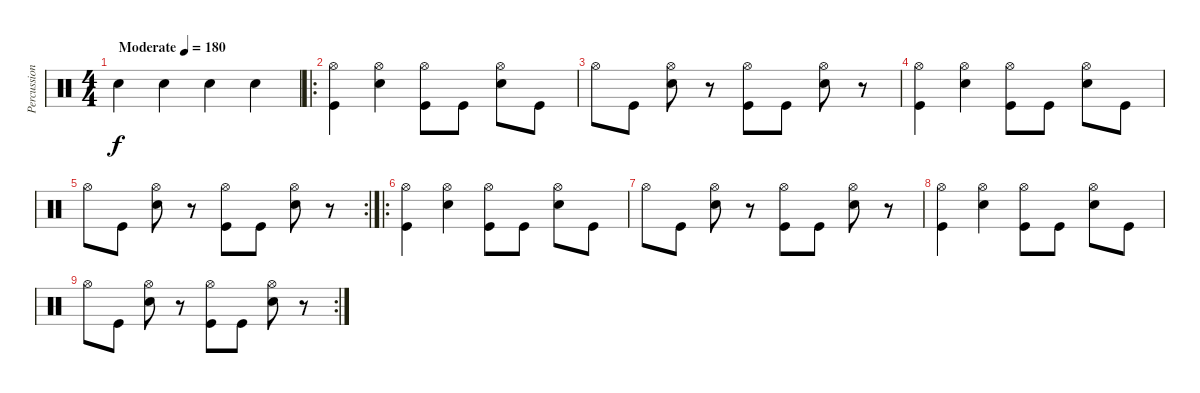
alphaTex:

\track ("Percussion" "Percussion") {instrument percussion}
\staff {score}
\articulation defaults
\ts (4 4)
\tempo (180 "Moderate")
\clef neutral
\ks c "Snare (hit) 2".4{dy f} "Snare (hit) 2".4 "Snare (hit) 2".4 "Snare (hit) 2".4
|
\ro
("Hi-Hat (open)" "Kick (hit)").4 ("Hi-Hat (open)" "Snare (hit) 2").4 ("Hi-Hat (open)" "Kick (hit)").8 "Kick (hit)".8 ("Hi-Hat (open)" "Snare (hit) 2").8 "Kick (hit)".8 |
"Hi-Hat (open)".8 "Kick (hit)".8 ("Hi-Hat (open)" "Snare (hit) 2").8 r.8 ("Hi-Hat (open)" "Kick (hit)").8 "Kick (hit)".8 ("Hi-Hat (open)" "Snare (hit) 2").8 r.8 |
("Hi-Hat (open)" "Kick (hit)").4 ("Hi-Hat (open)" "Snare (hit) 2").4 ("Hi-Hat (open)" "Kick (hit)").8 "Kick (hit)".8 ("Hi-Hat (open)" "Snare (hit) 2").8 "Kick (hit)".8 |
\rc 2 "Hi-Hat (open)".8 "Kick (hit)".8
("Hi-Hat (open)" "Snare (hit) 2").8 r.8 ("Hi-Hat (open)" "Kick (hit)").8 "Kick (hit)".8 ("Hi-Hat (open)" "Snare (hit) 2").8 r.8 |
\ro
("Hi-Hat (open)" "Kick (hit)").4 ("Hi-Hat (open)" "Snare (hit) 2").4 ("Hi-Hat (open)" "Kick (hit)").8 "Kick (hit)".8 ("Hi-Hat (open)" "Snare (hit) 2").8 "Kick (hit)".8 |
"Hi-Hat (open)".8 "Kick (hit)".8 ("Hi-Hat (open)" "Snare (hit) 2").8 r.8 ("Hi-Hat (open)" "Kick (hit)").8 "Kick (hit)".8 ("Hi-Hat (open)" "Snare (hit) 2").8 r.8 |
("Hi-Hat (open)" "Kick (hit)").4 ("Hi-Hat (open)" "Snare (hit) 2").4 ("Hi-Hat (open)" "Kick (hit)").8 "Kick (hit)".8 ("Hi-Hat (open)" "Snare (hit) 2").8 "Kick (hit)".8 |
\rc 2 "Hi-Hat (open)".8 "Kick (hit)".8
("Hi-Hat (open)" "Snare (hit) 2").8 r.8 ("Hi-Hat (open)" "Kick (hit)").8 "Kick (hit)".8 ("Hi-Hat (open)" "Snare (hit) 2").8 r.8
